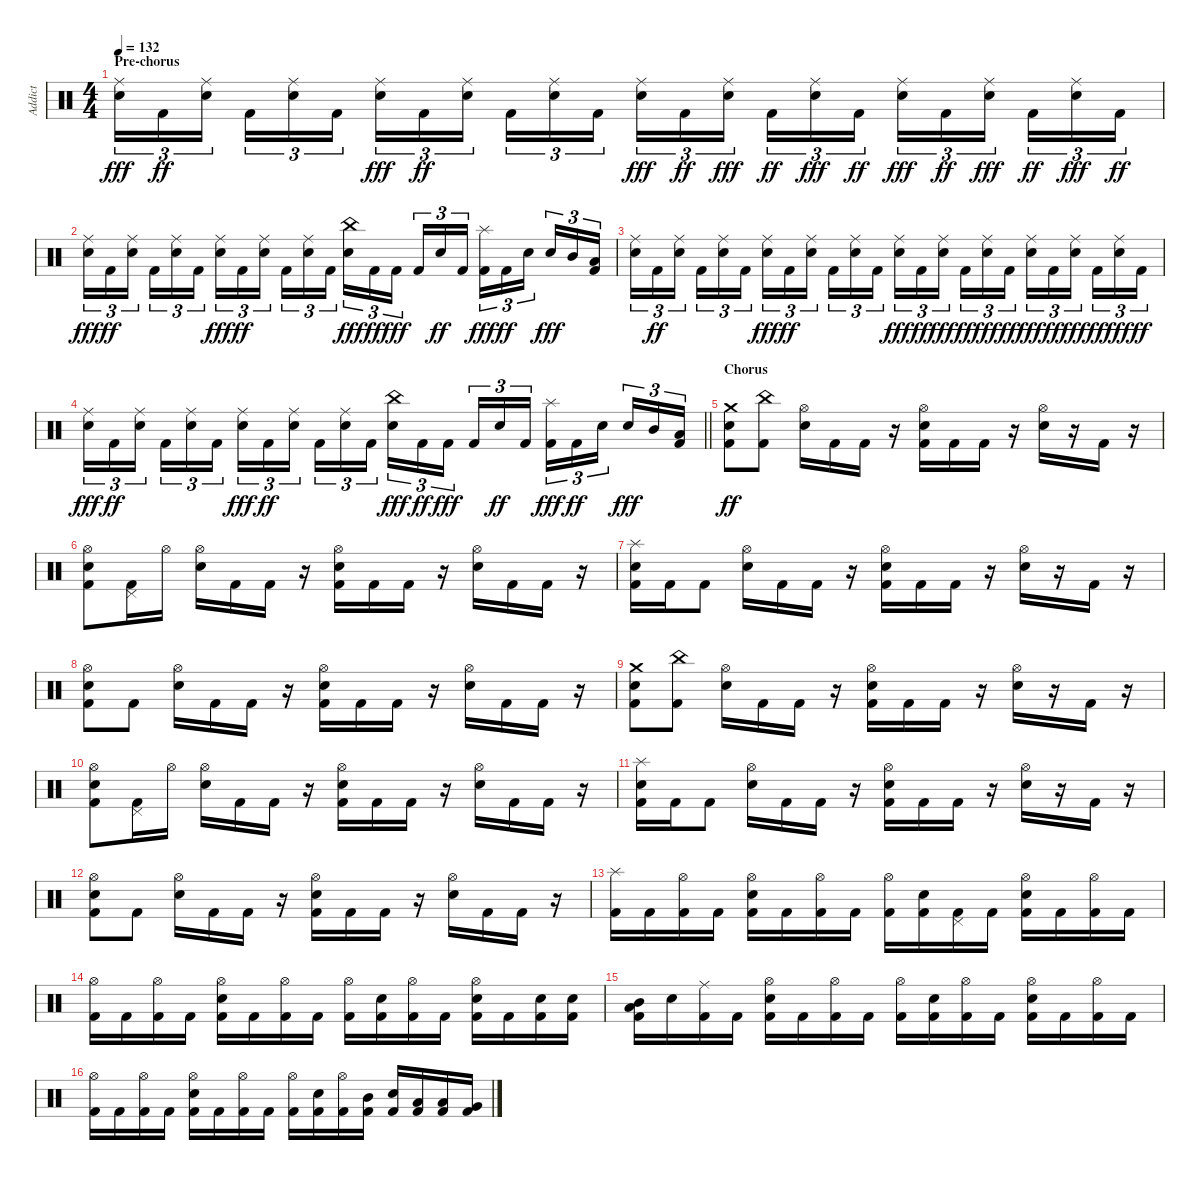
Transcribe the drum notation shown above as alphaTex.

\track ("Addict" "Addict") {instrument percussion}
\staff {score}
\articulation defaults
\ts (4 4)
\section ("" "Pre-chorus")
\tempo 132
\clef neutral
\ks c
("Snare (hit) 2" "Ride (middle)").16{tu (3 2) dy fff} "Kick (hit) 2".16{tu (3 2) dy ff} ("Snare (hit) 2" "Ride (middle)").16{tu (3 2) beam splitsecondary} "Kick (hit) 2".16{tu (3 2)} ("Snare (hit) 2" "Ride (middle)").16{tu (3 2)} "Kick (hit) 2".16{tu (3 2)} ("Snare (hit) 2" "Ride (middle)").16{tu (3 2) dy fff} "Kick (hit) 2".16{tu (3 2) dy ff} ("Snare (hit) 2" "Ride (middle)").16{tu (3 2) beam splitsecondary} "Kick (hit) 2".16{tu (3 2)} ("Snare (hit) 2" "Ride (middle)").16{tu (3 2)} "Kick (hit) 2".16{tu (3 2)} ("Snare (hit) 2" "Ride (middle)").16{tu (3 2) dy fff} "Kick (hit) 2".16{tu (3 2) dy ff} ("Snare (hit) 2" "Ride (middle)").16{tu (3 2) dy fff beam splitsecondary} "Kick (hit) 2".16{tu (3 2) dy ff} ("Snare (hit) 2" "Ride (middle)").16{tu (3 2) dy fff} "Kick (hit) 2".16{tu (3 2) dy ff} ("Snare (hit) 2" "Ride (middle)").16{tu (3 2) dy fff} "Kick (hit) 2".16{tu (3 2) dy ff} ("Snare (hit) 2" "Ride (middle)").16{tu (3 2) dy fff beam splitsecondary} "Kick (hit) 2".16{tu (3 2) dy ff} ("Snare (hit) 2" "Ride (middle)").16{tu (3 2) dy fff} "Kick (hit) 2".16{tu (3 2) dy ff} |
("Snare (hit) 2" "Ride (middle)").16{tu (3 2) dy fff} "Kick (hit) 2".16{tu (3 2) dy ff} ("Snare (hit) 2" "Ride (middle)").16{tu (3 2) beam splitsecondary} "Kick (hit) 2".16{tu (3 2)} ("Snare (hit) 2" "Ride (middle)").16{tu (3 2)} "Kick (hit) 2".16{tu (3 2)} ("Snare (hit) 2" "Ride (middle)").16{tu (3 2) dy fff} "Kick (hit) 2".16{tu (3 2) dy ff} ("Snare (hit) 2" "Ride (middle)").16{tu (3 2) beam splitsecondary} "Kick (hit) 2".16{tu (3 2)} ("Snare (hit) 2" "Ride (middle)").16{tu (3 2)} "Kick (hit) 2".16{tu (3 2)} ("Snare (hit) 2" "China (hit)").16{tu (3 2) dy fff} "Kick (hit) 2".16{tu (3 2) dy ff} "Kick (hit) 2".16{tu (3 2) dy fff beam splitsecondary} "Kick (hit) 2".16{tu (3 2)} "Snare (hit) 2".16{tu (3 2) dy ff} "Kick (hit) 2".16{tu (3 2)} ("Kick (hit) 2" "Splash (hit)").16{tu (3 2) dy fff} "Kick (hit) 2".16{tu (3 2) dy ff} "Snare (hit) 2".16{tu (3 2) beam splitsecondary} "Snare (hit) 2".16{tu (3 2) dy fff} "Mid Tom (hit)".16{tu (3 2)} ("Kick (hit) 2" "Low Tom (hit)").16{tu (3 2)} |
("Snare (hit) 2" "Ride (middle)").16{tu (3 2)} "Kick (hit) 2".16{tu (3 2) dy ff} ("Snare (hit) 2" "Ride (middle)").16{tu (3 2) beam splitsecondary} "Kick (hit) 2".16{tu (3 2)} ("Snare (hit) 2" "Ride (middle)").16{tu (3 2)} "Kick (hit) 2".16{tu (3 2)} ("Snare (hit) 2" "Ride (middle)").16{tu (3 2) dy fff} "Kick (hit) 2".16{tu (3 2) dy ff} ("Snare (hit) 2" "Ride (middle)").16{tu (3 2) beam splitsecondary} "Kick (hit) 2".16{tu (3 2)} ("Snare (hit) 2" "Ride (middle)").16{tu (3 2)} "Kick (hit) 2".16{tu (3 2)} ("Snare (hit) 2" "Ride (middle)").16{tu (3 2) dy fff} "Kick (hit) 2".16{tu (3 2) dy ff} ("Snare (hit) 2" "Ride (middle)").16{tu (3 2) dy fff beam splitsecondary} "Kick (hit) 2".16{tu (3 2) dy ff} ("Snare (hit) 2" "Ride (middle)").16{tu (3 2) dy fff} "Kick (hit) 2".16{tu (3 2) dy ff} ("Snare (hit) 2" "Ride (middle)").16{tu (3 2) dy fff} "Kick (hit) 2".16{tu (3 2) dy ff} ("Snare (hit) 2" "Ride (middle)").16{tu (3 2) dy fff beam splitsecondary} "Kick (hit) 2".16{tu (3 2) dy ff} ("Snare (hit) 2" "Ride (middle)").16{tu (3 2) dy fff} "Kick (hit) 2".16{tu (3 2) dy ff} |
\barLineRight lightlight
("Snare (hit) 2" "Ride (middle)").16{tu (3 2) dy fff} "Kick (hit) 2".16{tu (3 2) dy ff} ("Snare (hit) 2" "Ride (middle)").16{tu (3 2) beam splitsecondary} "Kick (hit) 2".16{tu (3 2)} ("Snare (hit) 2" "Ride (middle)").16{tu (3 2)} "Kick (hit) 2".16{tu (3 2)} ("Snare (hit) 2" "Ride (middle)").16{tu (3 2) dy fff} "Kick (hit) 2".16{tu (3 2) dy ff} ("Snare (hit) 2" "Ride (middle)").16{tu (3 2) beam splitsecondary} "Kick (hit) 2".16{tu (3 2)} ("Snare (hit) 2" "Ride (middle)").16{tu (3 2)} "Kick (hit) 2".16{tu (3 2)} ("Snare (hit) 2" "China (hit)").16{tu (3 2) dy fff} "Kick (hit) 2".16{tu (3 2) dy ff} "Kick (hit) 2".16{tu (3 2) dy fff beam splitsecondary} "Kick (hit) 2".16{tu (3 2)} "Snare (hit) 2".16{tu (3 2) dy ff} "Kick (hit) 2".16{tu (3 2)} ("Kick (hit) 2" "Splash (hit)").16{tu (3 2) dy fff} "Kick (hit) 2".16{tu (3 2) dy ff} "Snare (hit) 2".16{tu (3 2) beam splitsecondary} "Snare (hit) 2".16{tu (3 2) dy fff} "Mid Tom (hit)".16{tu (3 2)} ("Kick (hit) 2" "Low Tom (hit)").16{tu (3 2)} |
\section ("" "Chorus")
("Kick (hit) 2" "Snare (hit) 2" "Crash medium (hit)").8{dy ff} ("Kick (hit) 2" "China (hit)").8 ("Snare (hit) 2" "Hi-Hat (open)").16 "Kick (hit) 2".16 "Kick (hit) 2".16 r.16 ("Kick (hit) 2" "Snare (hit) 2" "Hi-Hat (open)").16 "Kick (hit) 2".16 "Kick (hit) 2".16 r.16 ("Snare (hit) 2" "Hi-Hat (open)").16 r.16 "Kick (hit) 2".16 r.16 |
("Kick (hit) 2" "Snare (hit) 2" "Hi-Hat (open)").8 ("Kick (hit) 2" "Pedal Hi-Hat (hit)").16 "Hi-Hat (open)".16 ("Snare (hit) 2" "Hi-Hat (open)").16 "Kick (hit) 2".16 "Kick (hit) 2".16 r.16 ("Kick (hit) 2" "Snare (hit) 2" "Hi-Hat (open)").16 "Kick (hit) 2".16 "Kick (hit) 2".16 r.16 ("Snare (hit) 2" "Hi-Hat (open)").16 "Kick (hit) 2".16 "Kick (hit) 2".16 r.16 |
("Kick (hit) 2" "Snare (hit) 2" "Splash (hit)").16 "Kick (hit) 2".16 "Kick (hit) 2".8 ("Snare (hit) 2" "Hi-Hat (open)").16 "Kick (hit) 2".16 "Kick (hit) 2".16 r.16 ("Kick (hit) 2" "Snare (hit) 2" "Hi-Hat (open)").16 "Kick (hit) 2".16 "Kick (hit) 2".16 r.16 ("Snare (hit) 2" "Hi-Hat (open)").16 r.16 "Kick (hit) 2".16 r.16 |
("Kick (hit) 2" "Snare (hit) 2" "Hi-Hat (open)").8 "Kick (hit) 2".8 ("Snare (hit) 2" "Hi-Hat (open)").16 "Kick (hit) 2".16 "Kick (hit) 2".16 r.16 ("Kick (hit) 2" "Snare (hit) 2" "Hi-Hat (open)").16 "Kick (hit) 2".16 "Kick (hit) 2".16 r.16 ("Snare (hit) 2" "Hi-Hat (open)").16 "Kick (hit) 2".16 "Kick (hit) 2".16 r.16 |
("Kick (hit) 2" "Snare (hit) 2" "Crash medium (hit)").8 ("Kick (hit) 2" "China (hit)").8 ("Snare (hit) 2" "Hi-Hat (open)").16 "Kick (hit) 2".16 "Kick (hit) 2".16 r.16 ("Kick (hit) 2" "Snare (hit) 2" "Hi-Hat (open)").16 "Kick (hit) 2".16 "Kick (hit) 2".16 r.16 ("Snare (hit) 2" "Hi-Hat (open)").16 r.16 "Kick (hit) 2".16 r.16 |
("Kick (hit) 2" "Snare (hit) 2" "Hi-Hat (open)").8 ("Kick (hit) 2" "Pedal Hi-Hat (hit)").16 "Hi-Hat (open)".16 ("Snare (hit) 2" "Hi-Hat (open)").16 "Kick (hit) 2".16 "Kick (hit) 2".16 r.16 ("Kick (hit) 2" "Snare (hit) 2" "Hi-Hat (open)").16 "Kick (hit) 2".16 "Kick (hit) 2".16 r.16 ("Snare (hit) 2" "Hi-Hat (open)").16 "Kick (hit) 2".16 "Kick (hit) 2".16 r.16 |
("Kick (hit) 2" "Snare (hit) 2" "Splash (hit)").16 "Kick (hit) 2".16 "Kick (hit) 2".8 ("Snare (hit) 2" "Hi-Hat (open)").16 "Kick (hit) 2".16 "Kick (hit) 2".16 r.16 ("Kick (hit) 2" "Snare (hit) 2" "Hi-Hat (open)").16 "Kick (hit) 2".16 "Kick (hit) 2".16 r.16 ("Snare (hit) 2" "Hi-Hat (open)").16 r.16 "Kick (hit) 2".16 r.16 |
("Kick (hit) 2" "Snare (hit) 2" "Hi-Hat (open)").8 "Kick (hit) 2".8 ("Snare (hit) 2" "Hi-Hat (open)").16 "Kick (hit) 2".16 "Kick (hit) 2".16 r.16 ("Kick (hit) 2" "Snare (hit) 2" "Hi-Hat (open)").16 "Kick (hit) 2".16 "Kick (hit) 2".16 r.16 ("Snare (hit) 2" "Hi-Hat (open)").16 "Kick (hit) 2".16 "Kick (hit) 2".16 r.16 |
("Kick (hit) 2" "Splash (hit)").16 "Kick (hit) 2".16 ("Kick (hit) 2" "Hi-Hat (open)").16 "Kick (hit) 2".16 ("Kick (hit) 2" "Snare (hit) 2" "Hi-Hat (open)").16 "Kick (hit) 2".16 ("Kick (hit) 2" "Hi-Hat (open)").16 "Kick (hit) 2".16 ("Kick (hit) 2" "Hi-Hat (open)").16 ("Kick (hit) 2" "Snare (hit) 2").16 ("Kick (hit) 2" "Pedal Hi-Hat (hit)").16 "Kick (hit) 2".16 ("Kick (hit) 2" "Snare (hit) 2" "Hi-Hat (open)").16 "Kick (hit) 2".16 ("Kick (hit) 2" "Hi-Hat (open)").16 "Kick (hit) 2".16 |
("Kick (hit) 2" "Hi-Hat (open)").16 "Kick (hit) 2".16 ("Kick (hit) 2" "Hi-Hat (open)").16 "Kick (hit) 2".16 ("Kick (hit) 2" "Snare (hit) 2" "Hi-Hat (open)").16 "Kick (hit) 2".16 ("Kick (hit) 2" "Hi-Hat (open)").16 "Kick (hit) 2".16 ("Kick (hit) 2" "Hi-Hat (open)").16 ("Kick (hit) 2" "Snare (hit) 2").16 ("Kick (hit) 2" "Hi-Hat (open)").16 "Kick (hit) 2".16 ("Kick (hit) 2" "Snare (hit) 2" "Hi-Hat (open)").16 "Kick (hit) 2".16 ("Kick (hit) 2" "Snare (hit) 2").16 ("Kick (hit) 2" "Snare (hit) 2").16 |
("Kick (hit) 2" "Low Tom (hit)" "Mid Tom (hit)").16 "Snare (hit) 2".16 ("Kick (hit) 2" "Ride (middle)").16 "Kick (hit) 2".16 ("Kick (hit) 2" "Snare (hit) 2" "Hi-Hat (open)").16 "Kick (hit) 2".16 ("Kick (hit) 2" "Hi-Hat (open)").16 "Kick (hit) 2".16 ("Kick (hit) 2" "Hi-Hat (open)").16 ("Kick (hit) 2" "Snare (hit) 2").16 ("Kick (hit) 2" "Hi-Hat (open)").16 "Kick (hit) 2".16 ("Kick (hit) 2" "Snare (hit) 2" "Hi-Hat (open)").16 "Kick (hit) 2".16 ("Kick (hit) 2" "Hi-Hat (open)").16 "Kick (hit) 2".16 |
("Kick (hit) 2" "Hi-Hat (open)").16 "Kick (hit) 2".16 ("Kick (hit) 2" "Hi-Hat (open)").16 "Kick (hit) 2".16 ("Kick (hit) 2" "Snare (hit) 2" "Hi-Hat (open)").16 "Kick (hit) 2".16 ("Kick (hit) 2" "Hi-Hat (open)").16 "Kick (hit) 2".16 ("Kick (hit) 2" "Hi-Hat (open)").16 ("Kick (hit) 2" "Snare (hit) 2").16 ("Kick (hit) 2" "Hi-Hat (open)").16 ("Kick (hit) 2" "Mid Tom (hit)").16 ("Kick (hit) 2" "Snare (hit) 2").16 ("Kick (hit) 2" "Low Tom (hit)").16 ("Kick (hit) 2" "Low Tom (hit)").16 ("Kick (hit) 2" "Very Low Tom (hit)").16
